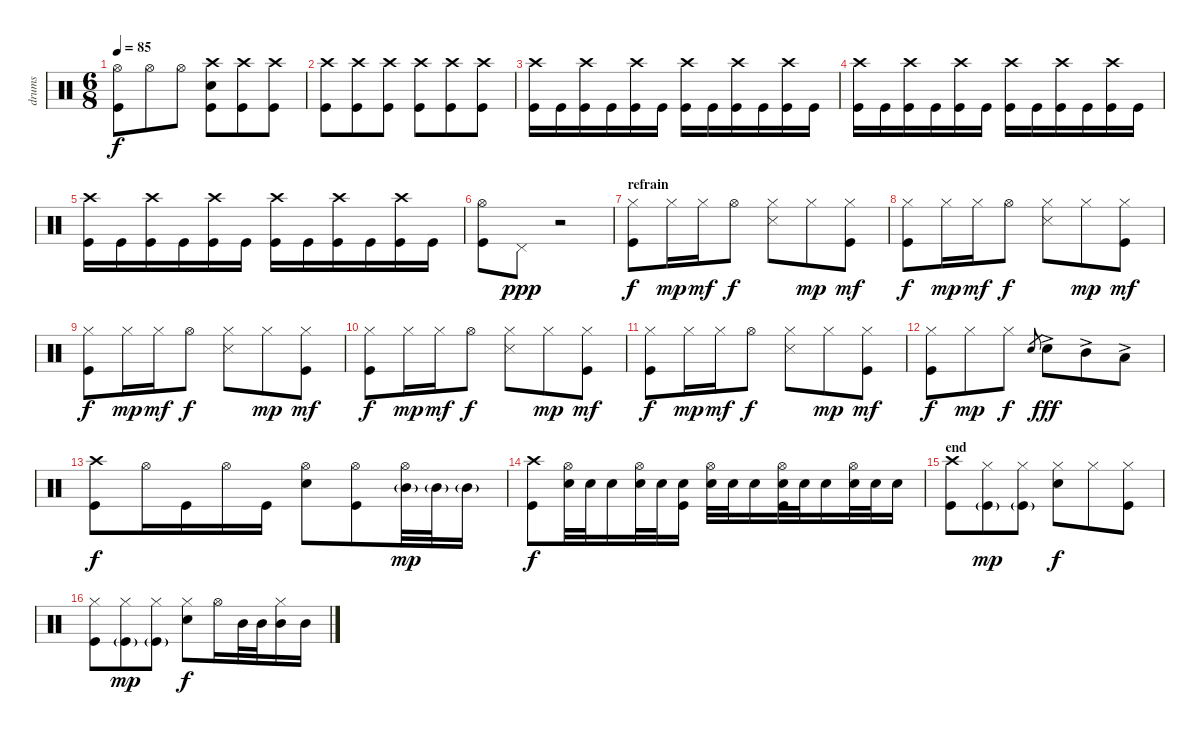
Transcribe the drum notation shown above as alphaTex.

\track ("drums" "drums") {instrument percussion}
\staff {score}
\articulation defaults
\ts (6 8)
\tempo 85
\clef neutral
\ks c
("Hi-Hat (open)" "Kick (hit)").8{dy f} "Hi-Hat (open)".8 "Hi-Hat (open)".8 ("Crash high (hit)" "Electric Snare (hit)" "Kick (hit)").8 ("Crash high (hit)" "Kick (hit)").8 ("Crash high (hit)" "Kick (hit)").8 |
("Crash high (hit)" "Kick (hit)").8 ("Crash high (hit)" "Kick (hit)").8 ("Crash high (hit)" "Kick (hit)").8 ("Crash high (hit)" "Kick (hit)").8 ("Crash high (hit)" "Kick (hit)").8 ("Crash high (hit)" "Kick (hit)").8 |
("Crash high (hit)" "Kick (hit)").16 "Kick (hit)".16 ("Crash high (hit)" "Kick (hit)").16 "Kick (hit)".16 ("Crash high (hit)" "Kick (hit)").16 "Kick (hit)".16 ("Crash high (hit)" "Kick (hit)").16 "Kick (hit)".16 ("Crash high (hit)" "Kick (hit)").16 "Kick (hit)".16 ("Crash high (hit)" "Kick (hit)").16 "Kick (hit)".16 |
("Crash high (hit)" "Kick (hit)").16 "Kick (hit)".16 ("Crash high (hit)" "Kick (hit)").16 "Kick (hit)".16 ("Crash high (hit)" "Kick (hit)").16 "Kick (hit)".16 ("Crash high (hit)" "Kick (hit)").16 "Kick (hit)".16 ("Crash high (hit)" "Kick (hit)").16 "Kick (hit)".16 ("Crash high (hit)" "Kick (hit)").16 "Kick (hit)".16 |
("Crash high (hit)" "Kick (hit)").16 "Kick (hit)".16 ("Crash high (hit)" "Kick (hit)").16 "Kick (hit)".16 ("Crash high (hit)" "Kick (hit)").16 "Kick (hit)".16 ("Crash high (hit)" "Kick (hit)").16 "Kick (hit)".16 ("Crash high (hit)" "Kick (hit)").16 "Kick (hit)".16 ("Crash high (hit)" "Kick (hit)").16 "Kick (hit)".16 |
("Hi-Hat (open)" "Kick (hit)").8 "Pedal Hi-Hat (hit)".8{dy ppp} r.2 |
\section ("" "refrain")
("Hi-Hat (closed)" "Kick (hit)").8{dy f} "Hi-Hat (closed)".16{dy mp} "Hi-Hat (closed)".16{dy mf} "Hi-Hat (open)".8{dy f} ("Hi-Hat (closed)" "Snare (side stick) 3").8 "Hi-Hat (closed)".8{dy mp} ("Hi-Hat (closed)" "Kick (hit)").8{dy mf} |
("Hi-Hat (closed)" "Kick (hit)").8{dy f} "Hi-Hat (closed)".16{dy mp} "Hi-Hat (closed)".16{dy mf} "Hi-Hat (open)".8{dy f} ("Hi-Hat (closed)" "Snare (side stick) 3").8 "Hi-Hat (closed)".8{dy mp} ("Hi-Hat (closed)" "Kick (hit)").8{dy mf} |
("Hi-Hat (closed)" "Kick (hit)").8{dy f} "Hi-Hat (closed)".16{dy mp} "Hi-Hat (closed)".16{dy mf} "Hi-Hat (open)".8{dy f} ("Hi-Hat (closed)" "Snare (side stick) 3").8 "Hi-Hat (closed)".8{dy mp} ("Hi-Hat (closed)" "Kick (hit)").8{dy mf} |
("Hi-Hat (closed)" "Kick (hit)").8{dy f} "Hi-Hat (closed)".16{dy mp} "Hi-Hat (closed)".16{dy mf} "Hi-Hat (open)".8{dy f} ("Hi-Hat (closed)" "Snare (side stick) 3").8 "Hi-Hat (closed)".8{dy mp} ("Hi-Hat (closed)" "Kick (hit)").8{dy mf} |
("Hi-Hat (closed)" "Kick (hit)").8{dy f} "Hi-Hat (closed)".16{dy mp} "Hi-Hat (closed)".16{dy mf} "Hi-Hat (open)".8{dy f} ("Hi-Hat (closed)" "Snare (side stick) 3").8 "Hi-Hat (closed)".8{dy mp} ("Hi-Hat (closed)" "Kick (hit)").8{dy mf} |
("Hi-Hat (closed)" "Kick (hit)").8{dy f} "Hi-Hat (closed)".8{dy mp} "Hi-Hat (closed)".8{dy f} "Electric Snare (hit)".8{gr} "Electric Snare (hit)"{ac}.8{dy fff} "Mid Tom (hit)"{ac}.8 "Low Tom (hit)"{ac}.8 |
("Crash high (hit)" "Kick (hit)").8{dy f} "Hi-Hat (open)".16 "Kick (hit)".16 "Hi-Hat (open)".16 "Kick (hit)".16 ("Hi-Hat (open)" "Electric Snare (hit)").8 ("Hi-Hat (open)" "Kick (hit)").8 ("Hi-Hat (open)" "Mid Tom (hit)"{g}).32{dy mp} "Mid Tom (hit)"{g}.32 "Mid Tom (hit)"{g}.16 |
("Crash high (hit)" "Kick (hit)").8{dy f} ("Hi-Hat (open)" "Electric Snare (hit)").32 "Electric Snare (hit)".32 "Electric Snare (hit)".16 ("Hi-Hat (open)" "Electric Snare (hit)").32 "Electric Snare (hit)".32 ("Electric Snare (hit)" "Kick (hit)").16 ("Hi-Hat (open)" "Electric Snare (hit)").32 "Electric Snare (hit)".32 "Electric Snare (hit)".16 ("Hi-Hat (open)" "Electric Snare (hit)" "Kick (hit)").32 "Electric Snare (hit)".32 "Electric Snare (hit)".16 ("Hi-Hat (open)" "Electric Snare (hit)").32 "Electric Snare (hit)".32 "Electric Snare (hit)".16 |
\section ("" "end")
("Crash high (hit)" "Kick (hit)").8 ("Hi-Hat (closed)" "Kick (hit)"{g}).8{dy mp} ("Hi-Hat (closed)" "Kick (hit)"{g}).8 ("Hi-Hat (closed)" "Electric Snare (hit)").8{dy f} "Hi-Hat (closed)".8 ("Hi-Hat (closed)" "Kick (hit)").8 |
("Hi-Hat (closed)" "Kick (hit)").8 ("Hi-Hat (closed)" "Kick (hit)"{g}).8{dy mp} ("Hi-Hat (closed)" "Kick (hit)"{g}).8 ("Hi-Hat (closed)" "Electric Snare (hit)").8{dy f} "Hi-Hat (open)".16 "Mid Tom (hit)".32 "Mid Tom (hit)".32 ("Hi-Hat (closed)" "Mid Tom (hit)").16 "Mid Tom (hit)".16
